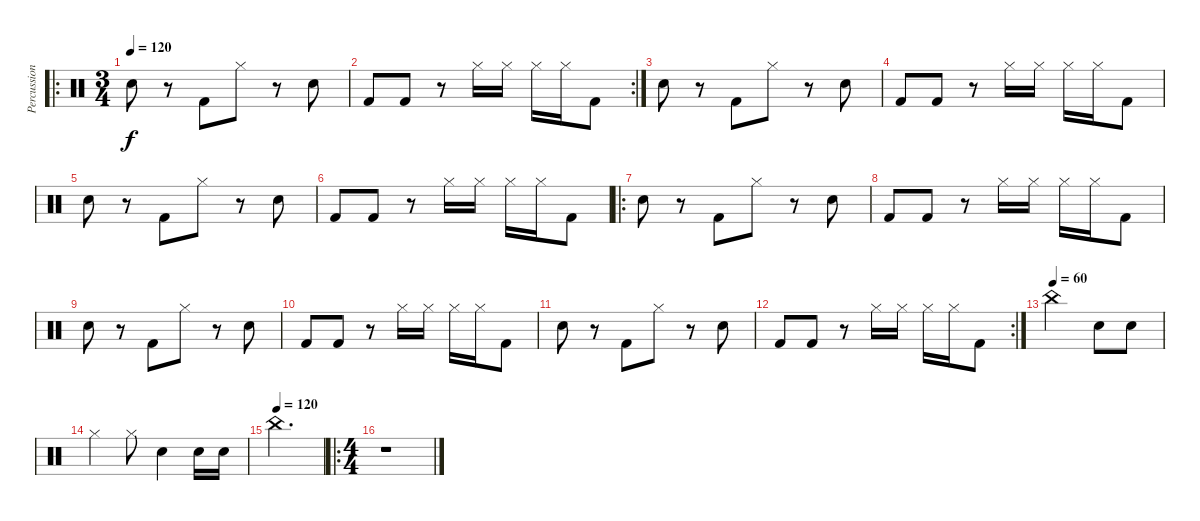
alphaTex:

\track ("Percussion" "Percussion") {instrument percussion}
\staff {score}
\articulation defaults
\ro
\ts (3 4)
\tempo 120
\clef neutral
\ks c "Snare (hit) 2".8{dy f}
r.8 "Kick (hit) 2".8 "Hi-Hat (closed)".8 r.8 "Snare (hit) 2".8 |
\rc 2 "Kick (hit) 2".8 "Kick (hit) 2".8
r.8 "Hi-Hat (closed)".16 "Hi-Hat (closed)".16 "Hi-Hat (closed)".16 "Hi-Hat (closed)".16 "Kick (hit) 2".8 |
"Snare (hit) 2".8 r.8 "Kick (hit) 2".8 "Hi-Hat (closed)".8 r.8 "Snare (hit) 2".8 |
"Kick (hit) 2".8 "Kick (hit) 2".8 r.8 "Hi-Hat (closed)".16 "Hi-Hat (closed)".16 "Hi-Hat (closed)".16 "Hi-Hat (closed)".16 "Kick (hit) 2".8 |
"Snare (hit) 2".8 r.8 "Kick (hit) 2".8 "Hi-Hat (closed)".8 r.8 "Snare (hit) 2".8 |
"Kick (hit) 2".8 "Kick (hit) 2".8 r.8 "Hi-Hat (closed)".16 "Hi-Hat (closed)".16 "Hi-Hat (closed)".16 "Hi-Hat (closed)".16 "Kick (hit) 2".8 |
\ro "Snare (hit) 2".8
r.8 "Kick (hit) 2".8 "Hi-Hat (closed)".8 r.8 "Snare (hit) 2".8 |
"Kick (hit) 2".8 "Kick (hit) 2".8 r.8 "Hi-Hat (closed)".16 "Hi-Hat (closed)".16 "Hi-Hat (closed)".16 "Hi-Hat (closed)".16 "Kick (hit) 2".8 |
"Snare (hit) 2".8 r.8 "Kick (hit) 2".8 "Hi-Hat (closed)".8 r.8 "Snare (hit) 2".8 |
"Kick (hit) 2".8 "Kick (hit) 2".8 r.8 "Hi-Hat (closed)".16 "Hi-Hat (closed)".16 "Hi-Hat (closed)".16 "Hi-Hat (closed)".16 "Kick (hit) 2".8 |
"Snare (hit) 2".8 r.8 "Kick (hit) 2".8 "Hi-Hat (closed)".8 r.8 "Snare (hit) 2".8 |
\rc 2 "Kick (hit) 2".8 "Kick (hit) 2".8
r.8 "Hi-Hat (closed)".16 "Hi-Hat (closed)".16 "Hi-Hat (closed)".16 "Hi-Hat (closed)".16 "Kick (hit) 2".8 |
\tempo (60)
"China (hit)".2 "Snare (hit) 2".8 "Snare (hit) 2".8 |
"Hi-Hat (closed)".4 "Hi-Hat (closed)".8 "Snare (hit) 2".4 "Snare (hit) 2".16 "Snare (hit) 2".16 |
\tempo (120)
"China (hit)".2{d} |
\ro
\ts (4 4)
r.1
